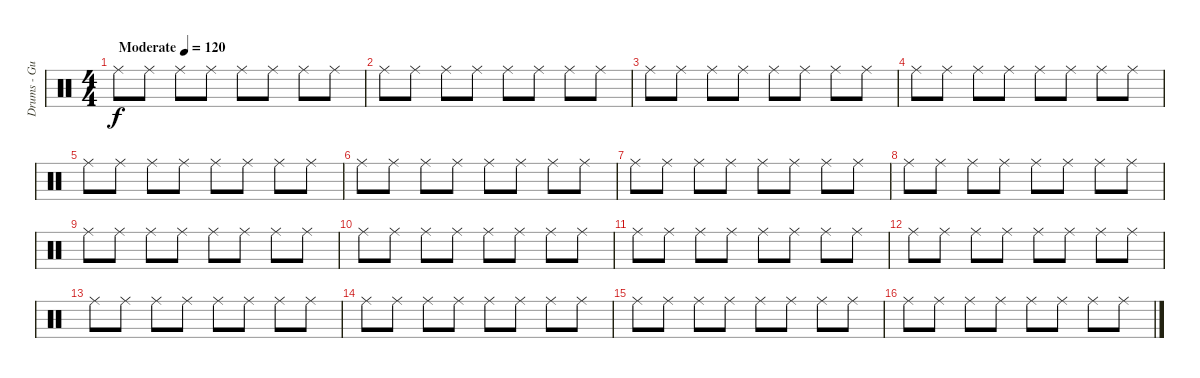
\track ("Drums - Gustav" "Drums - Gu") {instrument percussion}
\staff {score}
\articulation defaults
\ts (4 4)
\tempo (120 "Moderate")
\clef neutral
\ks c "Ride (middle)".8{dy f volume 0} "Ride (middle)".8{volume 2} "Ride (middle)".8 "Ride (middle)".8 "Ride (middle)".8 "Ride (middle)".8 "Ride (middle)".8 "Ride (middle)".8
|
"Ride (middle)".8 "Ride (middle)".8 "Ride (middle)".8 "Ride (middle)".8 "Ride (middle)".8 "Ride (middle)".8 "Ride (middle)".8 "Ride (middle)".8 |
"Ride (middle)".8 "Ride (middle)".8 "Ride (middle)".8 "Ride (middle)".8 "Ride (middle)".8 "Ride (middle)".8 "Ride (middle)".8 "Ride (middle)".8 |
"Ride (middle)".8 "Ride (middle)".8 "Ride (middle)".8 "Ride (middle)".8 "Ride (middle)".8 "Ride (middle)".8 "Ride (middle)".8 "Ride (middle)".8 |
"Ride (middle)".8 "Ride (middle)".8 "Ride (middle)".8 "Ride (middle)".8 "Ride (middle)".8 "Ride (middle)".8 "Ride (middle)".8 "Ride (middle)".8 |
"Ride (middle)".8 "Ride (middle)".8 "Ride (middle)".8 "Ride (middle)".8 "Ride (middle)".8 "Ride (middle)".8 "Ride (middle)".8 "Ride (middle)".8 |
"Ride (middle)".8 "Ride (middle)".8 "Ride (middle)".8 "Ride (middle)".8 "Ride (middle)".8 "Ride (middle)".8 "Ride (middle)".8 "Ride (middle)".8 |
"Ride (middle)".8 "Ride (middle)".8 "Ride (middle)".8 "Ride (middle)".8 "Ride (middle)".8 "Ride (middle)".8 "Ride (middle)".8 "Ride (middle)".8 |
"Ride (middle)".8 "Ride (middle)".8 "Ride (middle)".8 "Ride (middle)".8 "Ride (middle)".8 "Ride (middle)".8 "Ride (middle)".8 "Ride (middle)".8 |
"Ride (middle)".8 "Ride (middle)".8 "Ride (middle)".8 "Ride (middle)".8 "Ride (middle)".8 "Ride (middle)".8 "Ride (middle)".8 "Ride (middle)".8 |
"Ride (middle)".8 "Ride (middle)".8 "Ride (middle)".8 "Ride (middle)".8 "Ride (middle)".8 "Ride (middle)".8 "Ride (middle)".8 "Ride (middle)".8 |
"Ride (middle)".8 "Ride (middle)".8 "Ride (middle)".8 "Ride (middle)".8 "Ride (middle)".8 "Ride (middle)".8 "Ride (middle)".8 "Ride (middle)".8 |
"Ride (middle)".8 "Ride (middle)".8 "Ride (middle)".8 "Ride (middle)".8 "Ride (middle)".8 "Ride (middle)".8 "Ride (middle)".8 "Ride (middle)".8 |
"Ride (middle)".8 "Ride (middle)".8 "Ride (middle)".8 "Ride (middle)".8 "Ride (middle)".8 "Ride (middle)".8 "Ride (middle)".8 "Ride (middle)".8 |
"Ride (middle)".8 "Ride (middle)".8 "Ride (middle)".8 "Ride (middle)".8 "Ride (middle)".8 "Ride (middle)".8 "Ride (middle)".8 "Ride (middle)".8 |
"Ride (middle)".8 "Ride (middle)".8 "Ride (middle)".8 "Ride (middle)".8 "Ride (middle)".8 "Ride (middle)".8 "Ride (middle)".8 "Ride (middle)".8
